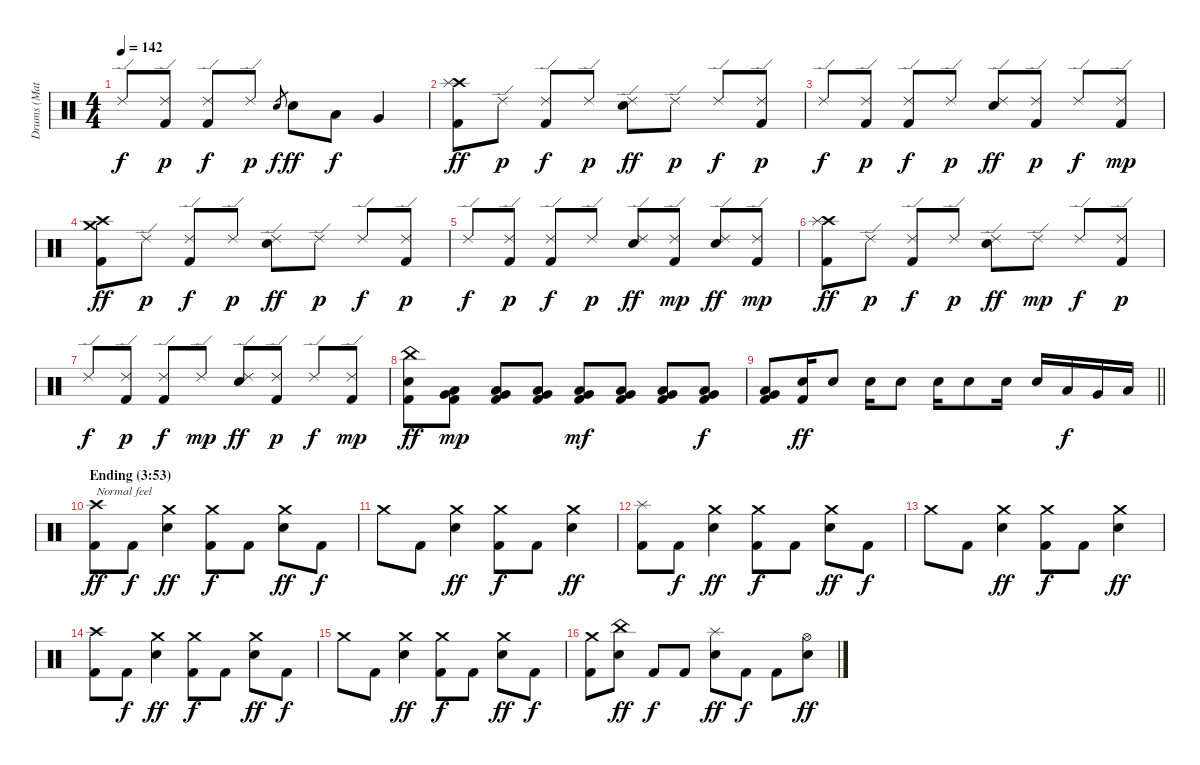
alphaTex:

\track ("Drums (Matt Sorum)" "Drums (Mat") {instrument percussion}
\staff {score}
\articulation defaults
\ts (4 4)
\tempo 142
\clef neutral
\ks c "Ride (edge) 2".8{dy f}
("Ride (edge) 2" "Kick (hit) 2").8{dy p} ("Ride (edge) 2" "Kick (hit) 2").8{dy f} "Ride (edge) 2".8{dy p} "Snare (hit) 2".8{gr dy f} "Snare (hit) 2".8{dy ff} "Low Tom (hit)".8{dy f} "Very Low Tom (hit)".4 |
("Crash high (hit)" "Splash (hit)" "Kick (hit) 2").8{dy ff} "Ride (edge) 2".8{dy p} ("Ride (edge) 2" "Kick (hit) 2").8{dy f} "Ride (edge) 2".8{dy p} ("Ride (edge) 2" "Snare (hit) 2").8{dy ff} "Ride (edge) 2".8{dy p} "Ride (edge) 2".8{dy f} ("Ride (edge) 2" "Kick (hit) 2").8{dy p} |
"Ride (edge) 2".8{dy f} ("Ride (edge) 2" "Kick (hit) 2").8{dy p} ("Ride (edge) 2" "Kick (hit) 2").8{dy f} "Ride (edge) 2".8{dy p} ("Ride (edge) 2" "Snare (hit) 2").8{dy ff} ("Ride (edge) 2" "Kick (hit) 2").8{dy p} "Ride (edge) 2".8{dy f} ("Ride (edge) 2" "Kick (hit) 2").8{dy mp} |
("Crash high (hit)" "Crash medium (hit)" "Kick (hit) 2").8{dy ff} "Ride (edge) 2".8{dy p} ("Ride (edge) 2" "Kick (hit) 2").8{dy f} "Ride (edge) 2".8{dy p} ("Ride (edge) 2" "Snare (hit) 2").8{dy ff} "Ride (edge) 2".8{dy p} "Ride (edge) 2".8{dy f} ("Ride (edge) 2" "Kick (hit) 2").8{dy p} |
"Ride (edge) 2".8{dy f} ("Ride (edge) 2" "Kick (hit) 2").8{dy p} ("Ride (edge) 2" "Kick (hit) 2").8{dy f} "Ride (edge) 2".8{dy p} ("Ride (edge) 2" "Snare (hit) 2").8{dy ff} ("Ride (edge) 2" "Kick (hit) 2").8{dy mp} ("Ride (edge) 2" "Snare (hit) 2").8{dy ff} ("Ride (edge) 2" "Kick (hit) 2").8{dy mp} |
("Crash high (hit)" "Splash (hit)" "Kick (hit) 2").8{dy ff} "Ride (edge) 2".8{dy p} ("Ride (edge) 2" "Kick (hit) 2").8{dy f} "Ride (edge) 2".8{dy p} ("Ride (edge) 2" "Snare (hit) 2").8{dy ff} "Ride (edge) 2".8{dy mp} "Ride (edge) 2".8{dy f} ("Ride (edge) 2" "Kick (hit) 2").8{dy p} |
"Ride (edge) 2".8{dy f} ("Ride (edge) 2" "Kick (hit) 2").8{dy p} ("Ride (edge) 2" "Kick (hit) 2").8{dy f} "Ride (edge) 2".8{dy mp} ("Ride (edge) 2" "Snare (hit) 2").8{dy ff} ("Ride (edge) 2" "Kick (hit) 2").8{dy p} "Ride (edge) 2".8{dy f} ("Ride (edge) 2" "Kick (hit) 2").8{dy mp} |
("China (hit)" "Snare (hit) 2" "Kick (hit) 2").8{dy ff} ("Very Low Tom (hit)" "Low Tom (hit)" "Kick (hit) 2").8{dy mp} ("Very Low Tom (hit)" "Low Tom (hit)" "Kick (hit) 2").8 ("Very Low Tom (hit)" "Low Tom (hit)" "Kick (hit) 2").8 ("Very Low Tom (hit)" "Low Tom (hit)" "Kick (hit) 2").8{dy mf} ("Very Low Tom (hit)" "Low Tom (hit)" "Kick (hit) 2").8 ("Very Low Tom (hit)" "Low Tom (hit)" "Kick (hit) 2").8 ("Very Low Tom (hit)" "Low Tom (hit)" "Kick (hit) 2").8{dy f} |
\barLineRight lightlight
("Very Low Tom (hit)" "Low Tom (hit)" "Kick (hit) 2").8 ("Snare (hit) 2" "Kick (hit) 2").16{dy ff} "Snare (hit) 2".8 "Snare (hit) 2".16 "Snare (hit) 2".8 "Snare (hit) 2".16 "Snare (hit) 2".8 "Snare (hit) 2".16 "Snare (hit) 2".16 "Low Tom (hit)".16{dy f} "Very Low Tom (hit)".16 "Low Floor Tom (hit)".16 |
\section ("" "Ending (3:53)")
("Crash high (hit)" "Kick (hit) 2").8{txt "Normal feel" dy ff} "Kick (hit) 2".8{dy f} ("Crash medium (hit)" "Snare (hit) 2").4{dy ff} ("Crash medium (hit)" "Kick (hit) 2").8{dy f} "Kick (hit) 2".8 ("Crash medium (hit)" "Snare (hit) 2").8{dy ff} "Kick (hit) 2".8{dy f} |
"Crash medium (hit)".8 "Kick (hit) 2".8 ("Crash medium (hit)" "Snare (hit) 2").4{dy ff} ("Crash medium (hit)" "Kick (hit) 2").8{dy f} "Kick (hit) 2".8 ("Crash medium (hit)" "Snare (hit) 2").4{dy ff} |
("Splash (hit)" "Kick (hit) 2").8 "Kick (hit) 2".8{dy f} ("Crash medium (hit)" "Snare (hit) 2").4{dy ff} ("Crash medium (hit)" "Kick (hit) 2").8{dy f} "Kick (hit) 2".8 ("Crash medium (hit)" "Snare (hit) 2").8{dy ff} "Kick (hit) 2".8{dy f} |
"Crash medium (hit)".8 "Kick (hit) 2".8 ("Crash medium (hit)" "Snare (hit) 2").4{dy ff} ("Crash medium (hit)" "Kick (hit) 2").8{dy f} "Kick (hit) 2".8 ("Crash medium (hit)" "Snare (hit) 2").4{dy ff} |
("Crash high (hit)" "Kick (hit) 2").8 "Kick (hit) 2".8{dy f} ("Crash medium (hit)" "Snare (hit) 2").4{dy ff} ("Crash medium (hit)" "Kick (hit) 2").8{dy f} "Kick (hit) 2".8 ("Crash medium (hit)" "Snare (hit) 2").8{dy ff} "Kick (hit) 2".8{dy f} |
"Crash medium (hit)".8 "Kick (hit) 2".8 ("Crash medium (hit)" "Snare (hit) 2").4{dy ff} ("Crash medium (hit)" "Kick (hit) 2").8{dy f} "Kick (hit) 2".8 ("Crash medium (hit)" "Snare (hit) 2").8{dy ff} "Kick (hit) 2".8{dy f} |
("Crash medium (hit)" "Kick (hit) 2").8 ("China (hit)" "Snare (hit) 2").8{dy ff} "Kick (hit) 2".8{dy f} "Kick (hit) 2".8 ("Splash (hit)" "Snare (hit) 2").8{dy ff} "Kick (hit) 2".8{dy f} "Kick (hit) 2".8 ("Hi-Hat (open)" "Snare (hit) 2").8{dy ff}
